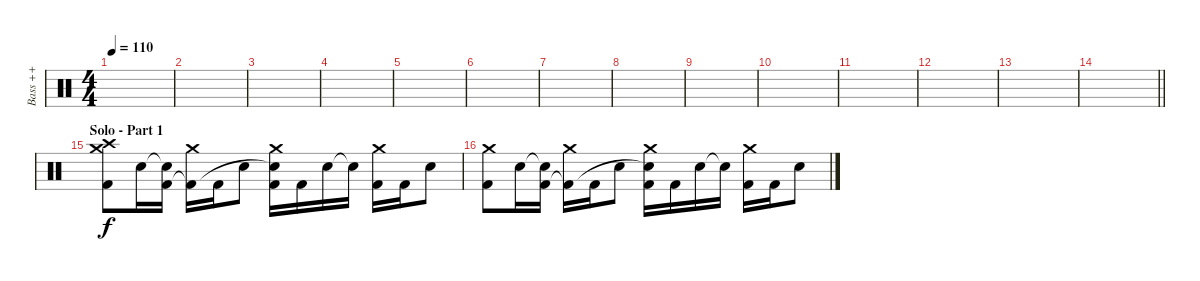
\track ("  Bass ++" "  Bass ++") {instrument percussion}
\staff {score}
\articulation defaults
\ts (4 4)
\tempo 110
\clef neutral
\ks c
|
|
|
|
|
|
|
|
|
|
|
|
|
\barLineRight lightlight
|
\section ("" "Solo - Part 1")
("Crash medium (hit)" "Crash high (hit)" "Kick (hit) 2").8 "Snare (hit) 2".16 ("Snare (hit)"{t} "Kick (hit) 2").16 ("Crash medium (hit)" "Kick (hit) 2"{t}).16 "Kick (hit) 2".16 "Snare (hit) 2".8 ("Crash medium (hit)" "Snare (hit) 2"{t} "Kick (hit) 2").16 "Kick (hit) 2".16 "Snare (hit) 2".16 "Snare (hit) 2"{t}.16 ("Crash medium (hit)" "Kick (hit) 2").16 "Kick (hit) 2".16 "Snare (hit) 2".8 |
("Crash medium (hit)" "Kick (hit) 2").8 "Snare (hit) 2".16 ("Snare (hit)"{t} "Kick (hit) 2").16 ("Crash medium (hit)" "Kick (hit) 2"{t}).16 "Kick (hit) 2".16 "Snare (hit) 2".8 ("Crash medium (hit)" "Snare (hit) 2"{t} "Kick (hit) 2").16 "Kick (hit) 2".16 "Snare (hit) 2".16 "Snare (hit) 2"{t}.16 ("Crash medium (hit)" "Kick (hit) 2").16 "Kick (hit) 2".16 "Snare (hit) 2".8
